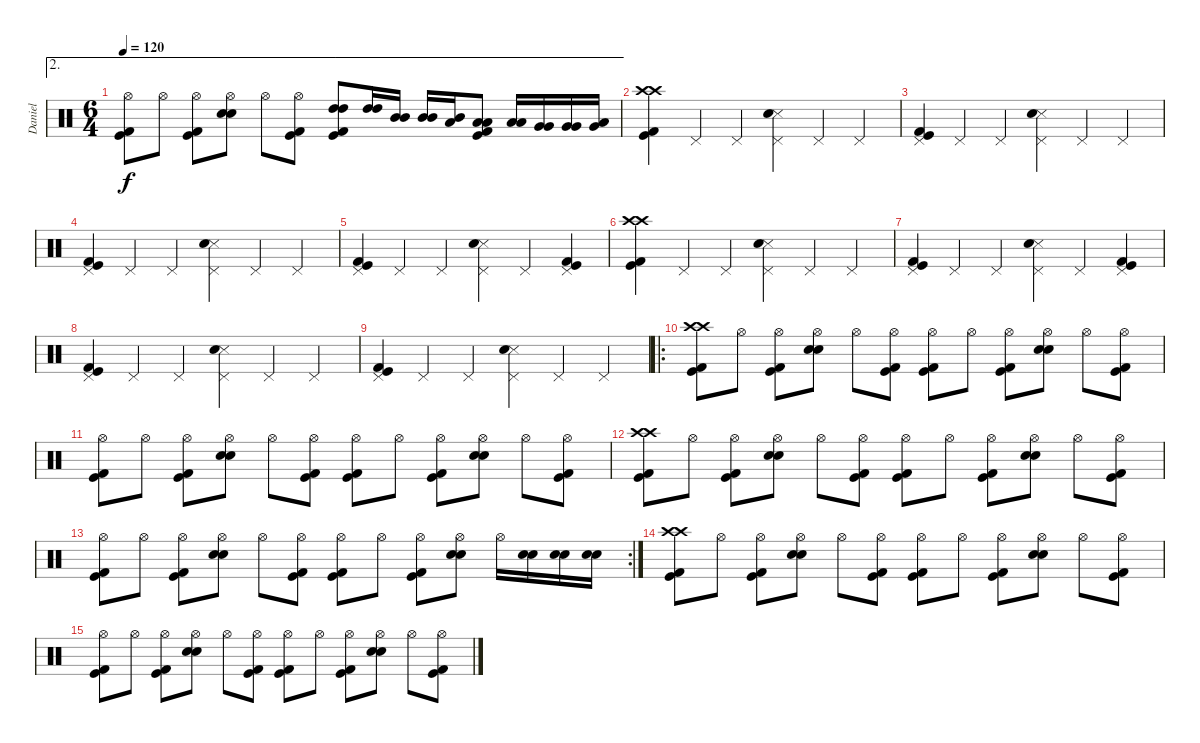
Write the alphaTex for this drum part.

\track ("Daniel" "Daniel") {instrument percussion}
\staff {score}
\articulation defaults
\ae 2
\ts (6 4)
\tempo 120
\clef neutral
\ks c
("Hi-Hat (open)" "Kick (hit) 2" "Kick (hit)").8{dy f} "Hi-Hat (open)".8 ("Hi-Hat (open)" "Kick (hit) 2" "Kick (hit)").8 ("Hi-Hat (open)" "Snare (hit) 2" "Electric Snare (hit)").8 "Hi-Hat (open)".8 ("Hi-Hat (open)" "Kick (hit) 2" "Kick (hit)").8 ("High Tom (hit)" "High Tom (hit)" "Kick (hit) 2" "Kick (hit)").8 ("High Tom (hit)" "High Tom (hit)").16 ("Mid Tom (hit)" "Mid Tom (hit)").16 ("Mid Tom (hit)" "Mid Tom (hit)").16 ("Mid Tom (hit)" "Low Tom (hit)").16 ("Low Tom (hit)" "Low Tom (hit)" "Kick (hit) 2" "Kick (hit)").8 ("Low Tom (hit)" "Low Tom (hit)").16 ("Very Low Tom (hit)" "Very Low Tom (hit)").16 ("Very Low Tom (hit)" "Very Low Tom (hit)").16 ("Very Low Tom (hit)" "Low Floor Tom (hit)").16 |
("Crash high (hit)" "Crash high (hit)" "Kick (hit) 2" "Kick (hit)").4 "Pedal Hi-Hat (hit)".4 "Pedal Hi-Hat (hit)".4 ("Pedal Hi-Hat (hit)" "Snare (side stick) 3" "Electric Snare (hit)").4 "Pedal Hi-Hat (hit)".4 "Pedal Hi-Hat (hit)".4 |
("Pedal Hi-Hat (hit)" "Kick (hit) 2" "Kick (hit)").4 "Pedal Hi-Hat (hit)".4 "Pedal Hi-Hat (hit)".4 ("Pedal Hi-Hat (hit)" "Snare (side stick) 3" "Electric Snare (hit)").4 "Pedal Hi-Hat (hit)".4 "Pedal Hi-Hat (hit)".4 |
("Pedal Hi-Hat (hit)" "Kick (hit) 2" "Kick (hit)").4 "Pedal Hi-Hat (hit)".4 "Pedal Hi-Hat (hit)".4 ("Pedal Hi-Hat (hit)" "Snare (side stick) 3" "Electric Snare (hit)").4 "Pedal Hi-Hat (hit)".4 "Pedal Hi-Hat (hit)".4 |
("Pedal Hi-Hat (hit)" "Kick (hit) 2" "Kick (hit)").4 "Pedal Hi-Hat (hit)".4 "Pedal Hi-Hat (hit)".4 ("Pedal Hi-Hat (hit)" "Snare (side stick) 3" "Electric Snare (hit)").4 "Pedal Hi-Hat (hit)".4 ("Pedal Hi-Hat (hit)" "Kick (hit) 2" "Kick (hit)").4 |
("Crash high (hit)" "Crash high (hit)" "Kick (hit) 2" "Kick (hit)").4 "Pedal Hi-Hat (hit)".4 "Pedal Hi-Hat (hit)".4 ("Pedal Hi-Hat (hit)" "Snare (side stick) 3" "Electric Snare (hit)").4 "Pedal Hi-Hat (hit)".4 "Pedal Hi-Hat (hit)".4 |
("Pedal Hi-Hat (hit)" "Kick (hit) 2" "Kick (hit)").4 "Pedal Hi-Hat (hit)".4 "Pedal Hi-Hat (hit)".4 ("Pedal Hi-Hat (hit)" "Snare (side stick) 3" "Electric Snare (hit)").4 "Pedal Hi-Hat (hit)".4 ("Pedal Hi-Hat (hit)" "Kick (hit) 2" "Kick (hit)").4 |
("Pedal Hi-Hat (hit)" "Kick (hit) 2" "Kick (hit)").4 "Pedal Hi-Hat (hit)".4 "Pedal Hi-Hat (hit)".4 ("Pedal Hi-Hat (hit)" "Snare (side stick) 3" "Electric Snare (hit)").4 "Pedal Hi-Hat (hit)".4 "Pedal Hi-Hat (hit)".4 |
("Pedal Hi-Hat (hit)" "Kick (hit) 2" "Kick (hit)").4 "Pedal Hi-Hat (hit)".4 "Pedal Hi-Hat (hit)".4 ("Pedal Hi-Hat (hit)" "Snare (side stick) 3" "Electric Snare (hit)").4 "Pedal Hi-Hat (hit)".4 "Pedal Hi-Hat (hit)".4 |
\ro
("Crash high (hit)" "Crash high (hit)" "Kick (hit) 2" "Kick (hit)").8 "Hi-Hat (open)".8 ("Hi-Hat (open)" "Kick (hit) 2" "Kick (hit)").8 ("Hi-Hat (open)" "Snare (hit) 2" "Electric Snare (hit)").8 "Hi-Hat (open)".8 ("Hi-Hat (open)" "Kick (hit) 2" "Kick (hit)").8 ("Hi-Hat (open)" "Kick (hit) 2" "Kick (hit)").8 "Hi-Hat (open)".8 ("Hi-Hat (open)" "Kick (hit) 2" "Kick (hit)").8 ("Hi-Hat (open)" "Snare (hit) 2" "Electric Snare (hit)").8 "Hi-Hat (open)".8 ("Hi-Hat (open)" "Kick (hit) 2" "Kick (hit)").8 |
("Hi-Hat (open)" "Kick (hit) 2" "Kick (hit)").8 "Hi-Hat (open)".8 ("Hi-Hat (open)" "Kick (hit) 2" "Kick (hit)").8 ("Hi-Hat (open)" "Snare (hit) 2" "Electric Snare (hit)").8 "Hi-Hat (open)".8 ("Hi-Hat (open)" "Kick (hit) 2" "Kick (hit)").8 ("Hi-Hat (open)" "Kick (hit) 2" "Kick (hit)").8 "Hi-Hat (open)".8 ("Hi-Hat (open)" "Kick (hit) 2" "Kick (hit)").8 ("Hi-Hat (open)" "Snare (hit) 2" "Electric Snare (hit)").8 "Hi-Hat (open)".8 ("Hi-Hat (open)" "Kick (hit) 2" "Kick (hit)").8 |
("Crash high (hit)" "Crash high (hit)" "Kick (hit) 2" "Kick (hit)").8 "Hi-Hat (open)".8 ("Hi-Hat (open)" "Kick (hit) 2" "Kick (hit)").8 ("Hi-Hat (open)" "Snare (hit) 2" "Electric Snare (hit)").8 "Hi-Hat (open)".8 ("Hi-Hat (open)" "Kick (hit) 2" "Kick (hit)").8 ("Hi-Hat (open)" "Kick (hit) 2" "Kick (hit)").8 "Hi-Hat (open)".8 ("Hi-Hat (open)" "Kick (hit) 2" "Kick (hit)").8 ("Hi-Hat (open)" "Snare (hit) 2" "Electric Snare (hit)").8 "Hi-Hat (open)".8 ("Hi-Hat (open)" "Kick (hit) 2" "Kick (hit)").8 |
\rc 2
("Hi-Hat (open)" "Kick (hit) 2" "Kick (hit)").8 "Hi-Hat (open)".8 ("Hi-Hat (open)" "Kick (hit) 2" "Kick (hit)").8 ("Hi-Hat (open)" "Snare (hit) 2" "Electric Snare (hit)").8 "Hi-Hat (open)".8 ("Hi-Hat (open)" "Kick (hit) 2" "Kick (hit)").8 ("Hi-Hat (open)" "Kick (hit) 2" "Kick (hit)").8 "Hi-Hat (open)".8 ("Hi-Hat (open)" "Kick (hit) 2" "Kick (hit)").8 ("Hi-Hat (open)" "Snare (hit) 2" "Electric Snare (hit)").8 "Hi-Hat (open)".16 ("Snare (hit) 2" "Electric Snare (hit)").16 ("Snare (hit) 2" "Electric Snare (hit)").16 ("Snare (hit) 2" "Electric Snare (hit)").16 |
("Crash high (hit)" "Crash high (hit)" "Kick (hit) 2" "Kick (hit)").8 "Hi-Hat (open)".8 ("Hi-Hat (open)" "Kick (hit) 2" "Kick (hit)").8 ("Hi-Hat (open)" "Snare (hit) 2" "Electric Snare (hit)").8 "Hi-Hat (open)".8 ("Hi-Hat (open)" "Kick (hit) 2" "Kick (hit)").8 ("Hi-Hat (open)" "Kick (hit) 2" "Kick (hit)").8 "Hi-Hat (open)".8 ("Hi-Hat (open)" "Kick (hit) 2" "Kick (hit)").8 ("Hi-Hat (open)" "Snare (hit) 2" "Electric Snare (hit)").8 "Hi-Hat (open)".8 ("Hi-Hat (open)" "Kick (hit) 2" "Kick (hit)").8 |
("Hi-Hat (open)" "Kick (hit) 2" "Kick (hit)").8 "Hi-Hat (open)".8 ("Hi-Hat (open)" "Kick (hit) 2" "Kick (hit)").8 ("Hi-Hat (open)" "Snare (hit) 2" "Electric Snare (hit)").8 "Hi-Hat (open)".8 ("Hi-Hat (open)" "Kick (hit) 2" "Kick (hit)").8 ("Hi-Hat (open)" "Kick (hit) 2" "Kick (hit)").8 "Hi-Hat (open)".8 ("Hi-Hat (open)" "Kick (hit) 2" "Kick (hit)").8 ("Hi-Hat (open)" "Snare (hit) 2" "Electric Snare (hit)").8 "Hi-Hat (open)".8 ("Hi-Hat (open)" "Kick (hit) 2" "Kick (hit)").8
